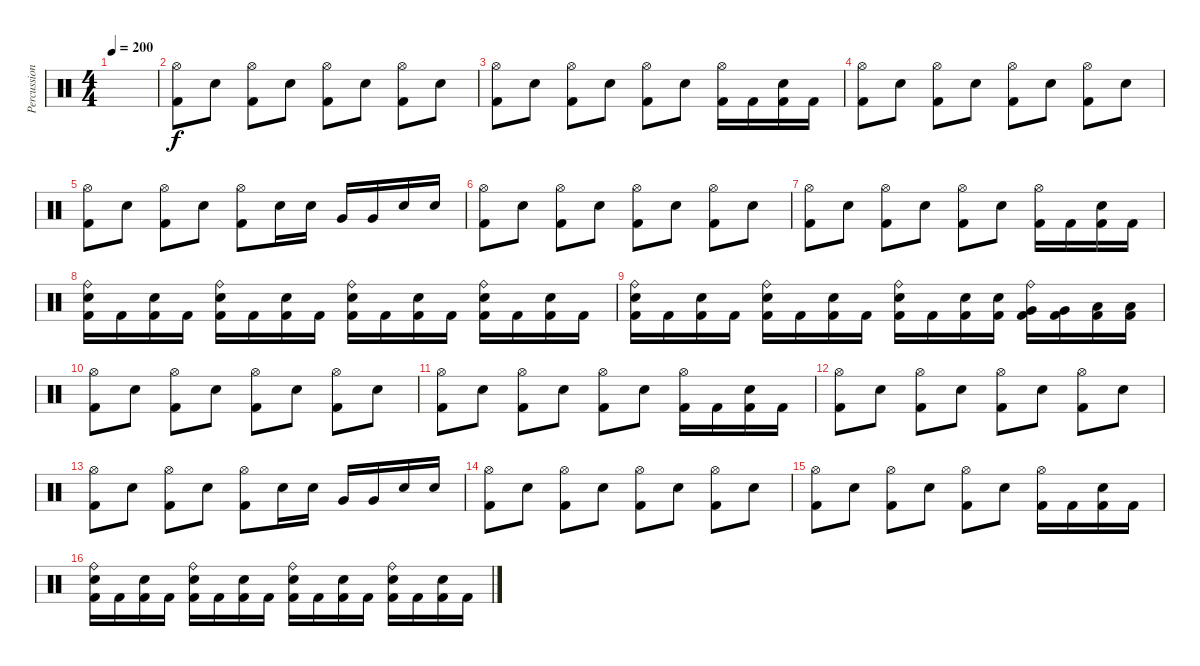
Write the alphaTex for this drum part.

\track ("Percussions" "Percussion") {instrument percussion}
\staff {score}
\articulation defaults
\ts (4 4)
\tempo 200
\clef neutral
\ks c
|
("Hi-Hat (open)" "Kick (hit) 2").8 "Electric Snare (hit)".8 ("Hi-Hat (open)" "Kick (hit) 2").8 "Electric Snare (hit)".8 ("Hi-Hat (open)" "Kick (hit) 2").8 "Electric Snare (hit)".8 ("Hi-Hat (open)" "Kick (hit) 2").8 "Electric Snare (hit)".8 |
("Hi-Hat (open)" "Kick (hit) 2").8 "Electric Snare (hit)".8 ("Hi-Hat (open)" "Kick (hit) 2").8 "Electric Snare (hit)".8 ("Hi-Hat (open)" "Kick (hit) 2").8 "Electric Snare (hit)".8 ("Hi-Hat (open)" "Kick (hit) 2").16 "Kick (hit) 2".16 ("Electric Snare (hit)" "Kick (hit) 2").16 "Kick (hit) 2".16 |
("Hi-Hat (open)" "Kick (hit) 2").8 "Electric Snare (hit)".8 ("Hi-Hat (open)" "Kick (hit) 2").8 "Electric Snare (hit)".8 ("Hi-Hat (open)" "Kick (hit) 2").8 "Electric Snare (hit)".8 ("Hi-Hat (open)" "Kick (hit) 2").8 "Electric Snare (hit)".8 |
("Hi-Hat (open)" "Kick (hit) 2").8 "Electric Snare (hit)".8 ("Hi-Hat (open)" "Kick (hit) 2").8 "Electric Snare (hit)".8 ("Hi-Hat (open)" "Kick (hit) 2").8 "Electric Snare (hit)".16 "Electric Snare (hit)".16 "Very Low Tom (hit)".16 "Very Low Tom (hit)".16 "Electric Snare (hit)".16 "Electric Snare (hit)".16 |
("Hi-Hat (open)" "Kick (hit) 2").8 "Electric Snare (hit)".8 ("Hi-Hat (open)" "Kick (hit) 2").8 "Electric Snare (hit)".8 ("Hi-Hat (open)" "Kick (hit) 2").8 "Electric Snare (hit)".8 ("Hi-Hat (open)" "Kick (hit) 2").8 "Electric Snare (hit)".8 |
("Hi-Hat (open)" "Kick (hit) 2").8 "Electric Snare (hit)".8 ("Hi-Hat (open)" "Kick (hit) 2").8 "Electric Snare (hit)".8 ("Hi-Hat (open)" "Kick (hit) 2").8 "Electric Snare (hit)".8 ("Hi-Hat (open)" "Kick (hit) 2").16 "Kick (hit) 2".16 ("Electric Snare (hit)" "Kick (hit) 2").16 "Kick (hit) 2".16 |
("Ride (bell)" "Electric Snare (hit)" "Kick (hit) 2").16 "Kick (hit) 2".16 ("Electric Snare (hit)" "Kick (hit) 2").16 "Kick (hit) 2".16 ("Ride (bell)" "Electric Snare (hit)" "Kick (hit) 2").16 "Kick (hit) 2".16 ("Electric Snare (hit)" "Kick (hit) 2").16 "Kick (hit) 2".16 ("Ride (bell)" "Electric Snare (hit)" "Kick (hit) 2").16 "Kick (hit) 2".16 ("Electric Snare (hit)" "Kick (hit) 2").16 "Kick (hit) 2".16 ("Ride (bell)" "Electric Snare (hit)" "Kick (hit) 2").16 "Kick (hit) 2".16 ("Electric Snare (hit)" "Kick (hit) 2").16 "Kick (hit) 2".16 |
("Ride (bell)" "Electric Snare (hit)" "Kick (hit) 2").16 "Kick (hit) 2".16 ("Electric Snare (hit)" "Kick (hit) 2").16 "Kick (hit) 2".16 ("Ride (bell)" "Electric Snare (hit)" "Kick (hit) 2").16 "Kick (hit) 2".16 ("Electric Snare (hit)" "Kick (hit) 2").16 "Kick (hit) 2".16 ("Ride (bell)" "Electric Snare (hit)" "Kick (hit) 2").16 "Kick (hit) 2".16 ("Electric Snare (hit)" "Kick (hit) 2").16 ("Electric Snare (hit)" "Kick (hit) 2").16 ("Ride (bell)" "Very Low Tom (hit)" "Kick (hit) 2").16 ("Very Low Tom (hit)" "Kick (hit) 2").16 ("Low Floor Tom (hit)" "Kick (hit) 2").16 ("Low Floor Tom (hit)" "Kick (hit) 2").16 |
("Hi-Hat (open)" "Kick (hit) 2").8 "Electric Snare (hit)".8 ("Hi-Hat (open)" "Kick (hit) 2").8 "Electric Snare (hit)".8 ("Hi-Hat (open)" "Kick (hit) 2").8 "Electric Snare (hit)".8 ("Hi-Hat (open)" "Kick (hit) 2").8 "Electric Snare (hit)".8 |
("Hi-Hat (open)" "Kick (hit) 2").8 "Electric Snare (hit)".8 ("Hi-Hat (open)" "Kick (hit) 2").8 "Electric Snare (hit)".8 ("Hi-Hat (open)" "Kick (hit) 2").8 "Electric Snare (hit)".8 ("Hi-Hat (open)" "Kick (hit) 2").16 "Kick (hit) 2".16 ("Electric Snare (hit)" "Kick (hit) 2").16 "Kick (hit) 2".16 |
("Hi-Hat (open)" "Kick (hit) 2").8 "Electric Snare (hit)".8 ("Hi-Hat (open)" "Kick (hit) 2").8 "Electric Snare (hit)".8 ("Hi-Hat (open)" "Kick (hit) 2").8 "Electric Snare (hit)".8 ("Hi-Hat (open)" "Kick (hit) 2").8 "Electric Snare (hit)".8 |
("Hi-Hat (open)" "Kick (hit) 2").8 "Electric Snare (hit)".8 ("Hi-Hat (open)" "Kick (hit) 2").8 "Electric Snare (hit)".8 ("Hi-Hat (open)" "Kick (hit) 2").8 "Electric Snare (hit)".16 "Electric Snare (hit)".16 "Very Low Tom (hit)".16 "Very Low Tom (hit)".16 "Electric Snare (hit)".16 "Electric Snare (hit)".16 |
("Hi-Hat (open)" "Kick (hit) 2").8 "Electric Snare (hit)".8 ("Hi-Hat (open)" "Kick (hit) 2").8 "Electric Snare (hit)".8 ("Hi-Hat (open)" "Kick (hit) 2").8 "Electric Snare (hit)".8 ("Hi-Hat (open)" "Kick (hit) 2").8 "Electric Snare (hit)".8 |
("Hi-Hat (open)" "Kick (hit) 2").8 "Electric Snare (hit)".8 ("Hi-Hat (open)" "Kick (hit) 2").8 "Electric Snare (hit)".8 ("Hi-Hat (open)" "Kick (hit) 2").8 "Electric Snare (hit)".8 ("Hi-Hat (open)" "Kick (hit) 2").16 "Kick (hit) 2".16 ("Electric Snare (hit)" "Kick (hit) 2").16 "Kick (hit) 2".16 |
("Ride (bell)" "Electric Snare (hit)" "Kick (hit) 2").16 "Kick (hit) 2".16 ("Electric Snare (hit)" "Kick (hit) 2").16 "Kick (hit) 2".16 ("Ride (bell)" "Electric Snare (hit)" "Kick (hit) 2").16 "Kick (hit) 2".16 ("Electric Snare (hit)" "Kick (hit) 2").16 "Kick (hit) 2".16 ("Ride (bell)" "Electric Snare (hit)" "Kick (hit) 2").16 "Kick (hit) 2".16 ("Electric Snare (hit)" "Kick (hit) 2").16 "Kick (hit) 2".16 ("Ride (bell)" "Electric Snare (hit)" "Kick (hit) 2").16 "Kick (hit) 2".16 ("Electric Snare (hit)" "Kick (hit) 2").16 "Kick (hit) 2".16
